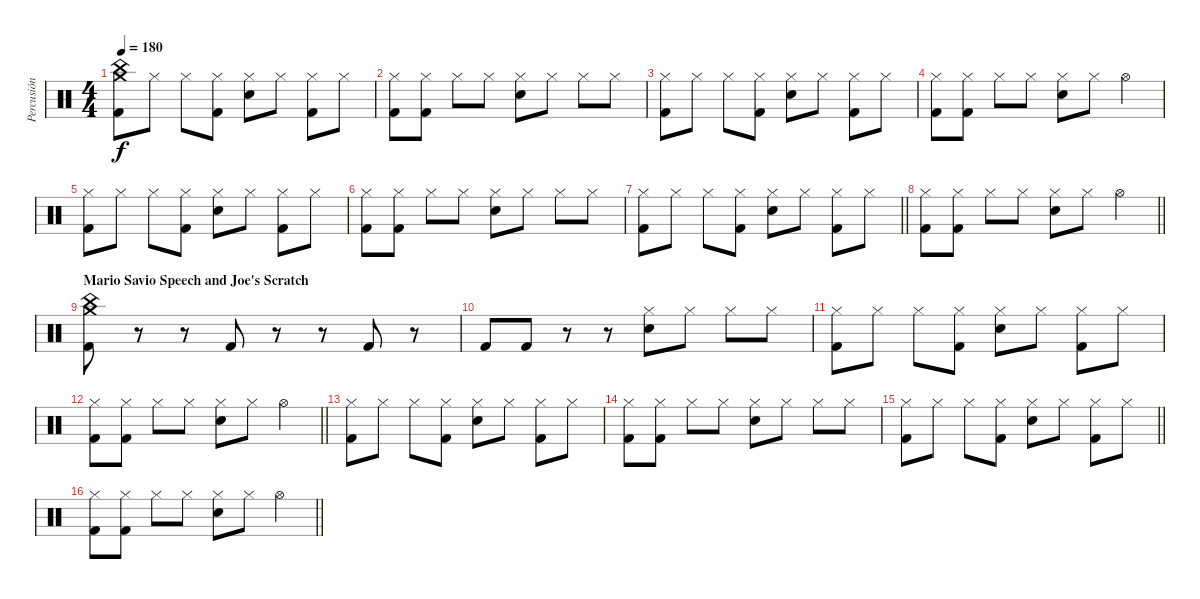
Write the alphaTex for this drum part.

\track ("Percusión" "Percusión") {instrument percussion}
\staff {score}
\articulation defaults
\ts (4 4)
\tempo 180
\clef neutral
\ks c
("Crash medium (hit)" "China (hit)" "Kick (hit) 2").8{dy f} "Hi-Hat (closed)".8 "Hi-Hat (closed)".8 ("Hi-Hat (closed)" "Kick (hit) 2").8 ("Hi-Hat (closed)" "Snare (hit) 2").8 "Hi-Hat (closed)".8 ("Hi-Hat (closed)" "Kick (hit) 2").8 "Hi-Hat (closed)".8 |
("Hi-Hat (closed)" "Kick (hit) 2").8 ("Hi-Hat (closed)" "Kick (hit) 2").8 "Hi-Hat (closed)".8 "Hi-Hat (closed)".8 ("Hi-Hat (closed)" "Snare (hit) 2").8 "Hi-Hat (closed)".8 "Hi-Hat (closed)".8 "Hi-Hat (closed)".8 |
("Hi-Hat (closed)" "Kick (hit) 2").8 "Hi-Hat (closed)".8 "Hi-Hat (closed)".8 ("Hi-Hat (closed)" "Kick (hit) 2").8 ("Hi-Hat (closed)" "Snare (hit) 2").8 "Hi-Hat (closed)".8 ("Hi-Hat (closed)" "Kick (hit) 2").8 "Hi-Hat (closed)".8 |
("Hi-Hat (closed)" "Kick (hit) 2").8 ("Hi-Hat (closed)" "Kick (hit) 2").8 "Hi-Hat (closed)".8 "Hi-Hat (closed)".8 ("Hi-Hat (closed)" "Snare (hit) 2").8 "Hi-Hat (closed)".8 "Hi-Hat (open)".4 |
("Hi-Hat (closed)" "Kick (hit) 2").8 "Hi-Hat (closed)".8 "Hi-Hat (closed)".8 ("Hi-Hat (closed)" "Kick (hit) 2").8 ("Hi-Hat (closed)" "Snare (hit) 2").8 "Hi-Hat (closed)".8 ("Hi-Hat (closed)" "Kick (hit) 2").8 "Hi-Hat (closed)".8 |
("Hi-Hat (closed)" "Kick (hit) 2").8 ("Hi-Hat (closed)" "Kick (hit) 2").8 "Hi-Hat (closed)".8 "Hi-Hat (closed)".8 ("Hi-Hat (closed)" "Snare (hit) 2").8 "Hi-Hat (closed)".8 "Hi-Hat (closed)".8 "Hi-Hat (closed)".8 |
\barLineRight lightlight
("Hi-Hat (closed)" "Kick (hit) 2").8 "Hi-Hat (closed)".8 "Hi-Hat (closed)".8 ("Hi-Hat (closed)" "Kick (hit) 2").8 ("Hi-Hat (closed)" "Snare (hit) 2").8 "Hi-Hat (closed)".8 ("Hi-Hat (closed)" "Kick (hit) 2").8 "Hi-Hat (closed)".8 |
\barLineRight lightlight
("Hi-Hat (closed)" "Kick (hit) 2").8 ("Hi-Hat (closed)" "Kick (hit) 2").8 "Hi-Hat (closed)".8 "Hi-Hat (closed)".8 ("Hi-Hat (closed)" "Snare (hit) 2").8 "Hi-Hat (closed)".8 "Hi-Hat (open)".4 |
\section ("" "Mario Savio Speech and Joe's Scratch")
("Crash medium (hit)" "China (hit)" "Kick (hit) 2").8 r.8 r.8 "Kick (hit) 2".8 r.8 r.8 "Kick (hit) 2".8 r.8 |
"Kick (hit) 2".8 "Kick (hit) 2".8 r.8 r.8 ("Hi-Hat (closed)" "Snare (hit) 2").8 "Hi-Hat (closed)".8 "Hi-Hat (closed)".8 "Hi-Hat (closed)".8 |
("Hi-Hat (closed)" "Kick (hit) 2").8 "Hi-Hat (closed)".8 "Hi-Hat (closed)".8 ("Hi-Hat (closed)" "Kick (hit) 2").8 ("Hi-Hat (closed)" "Snare (hit) 2").8 "Hi-Hat (closed)".8 ("Hi-Hat (closed)" "Kick (hit) 2").8 "Hi-Hat (closed)".8 |
\barLineRight lightlight
("Hi-Hat (closed)" "Kick (hit) 2").8 ("Hi-Hat (closed)" "Kick (hit) 2").8 "Hi-Hat (closed)".8 "Hi-Hat (closed)".8 ("Hi-Hat (closed)" "Snare (hit) 2").8 "Hi-Hat (closed)".8 "Hi-Hat (open)".4 |
("Hi-Hat (closed)" "Kick (hit) 2").8 "Hi-Hat (closed)".8 "Hi-Hat (closed)".8 ("Hi-Hat (closed)" "Kick (hit) 2").8 ("Hi-Hat (closed)" "Snare (hit) 2").8 "Hi-Hat (closed)".8 ("Hi-Hat (closed)" "Kick (hit) 2").8 "Hi-Hat (closed)".8 |
("Hi-Hat (closed)" "Kick (hit) 2").8 ("Hi-Hat (closed)" "Kick (hit) 2").8 "Hi-Hat (closed)".8 "Hi-Hat (closed)".8 ("Hi-Hat (closed)" "Snare (hit) 2").8 "Hi-Hat (closed)".8 "Hi-Hat (closed)".8 "Hi-Hat (closed)".8 |
\barLineRight lightlight
("Hi-Hat (closed)" "Kick (hit) 2").8 "Hi-Hat (closed)".8 "Hi-Hat (closed)".8 ("Hi-Hat (closed)" "Kick (hit) 2").8 ("Hi-Hat (closed)" "Snare (hit) 2").8 "Hi-Hat (closed)".8 ("Hi-Hat (closed)" "Kick (hit) 2").8 "Hi-Hat (closed)".8 |
\barLineRight lightlight
("Hi-Hat (closed)" "Kick (hit) 2").8 ("Hi-Hat (closed)" "Kick (hit) 2").8 "Hi-Hat (closed)".8 "Hi-Hat (closed)".8 ("Hi-Hat (closed)" "Snare (hit) 2").8 "Hi-Hat (closed)".8 "Hi-Hat (open)".4
